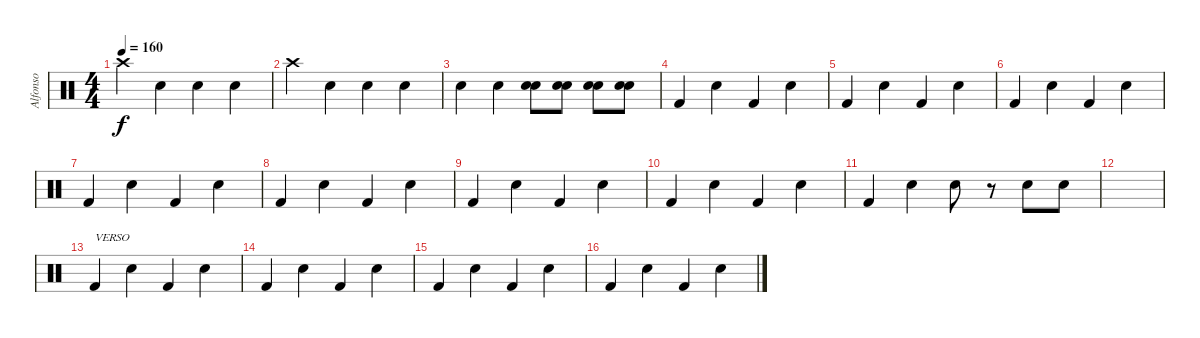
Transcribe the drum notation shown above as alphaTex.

\track ("Alfonso" "Alfonso") {instrument percussion}
\staff {score}
\articulation defaults
\ts (4 4)
\tempo 160
\clef neutral
\ks c "Crash high (hit)".4{dy f} "Electric Snare (hit)".4 "Electric Snare (hit)".4 "Electric Snare (hit)".4
|
"Crash high (hit)".4 "Electric Snare (hit)".4 "Electric Snare (hit)".4 "Electric Snare (hit)".4 |
"Electric Snare (hit)".4 "Electric Snare (hit)".4 ("Electric Snare (hit)" "Snare (hit) 2").8 ("Electric Snare (hit)" "Snare (hit) 2").8 ("Electric Snare (hit)" "Snare (hit) 2").8 ("Electric Snare (hit)" "Snare (hit) 2").8 |
"Kick (hit) 2".4 "Electric Snare (hit)".4 "Kick (hit) 2".4 "Electric Snare (hit)".4 |
"Kick (hit) 2".4 "Electric Snare (hit)".4 "Kick (hit) 2".4 "Electric Snare (hit)".4 |
"Kick (hit) 2".4 "Electric Snare (hit)".4 "Kick (hit) 2".4 "Electric Snare (hit)".4 |
"Kick (hit) 2".4 "Electric Snare (hit)".4 "Kick (hit) 2".4 "Electric Snare (hit)".4 |
"Kick (hit) 2".4 "Electric Snare (hit)".4 "Kick (hit) 2".4 "Electric Snare (hit)".4 |
"Kick (hit) 2".4 "Electric Snare (hit)".4 "Kick (hit) 2".4 "Electric Snare (hit)".4 |
"Kick (hit) 2".4 "Electric Snare (hit)".4 "Kick (hit) 2".4 "Electric Snare (hit)".4 |
"Kick (hit) 2".4 "Electric Snare (hit)".4 "Electric Snare (hit)".8 r.8 "Electric Snare (hit)".8 "Electric Snare (hit)".8 |
|
"Kick (hit) 2".4{txt "VERSO"} "Electric Snare (hit)".4 "Kick (hit) 2".4 "Electric Snare (hit)".4 |
"Kick (hit) 2".4 "Electric Snare (hit)".4 "Kick (hit) 2".4 "Electric Snare (hit)".4 |
"Kick (hit) 2".4 "Electric Snare (hit)".4 "Kick (hit) 2".4 "Electric Snare (hit)".4 |
"Kick (hit) 2".4 "Electric Snare (hit)".4 "Kick (hit) 2".4 "Electric Snare (hit)".4
